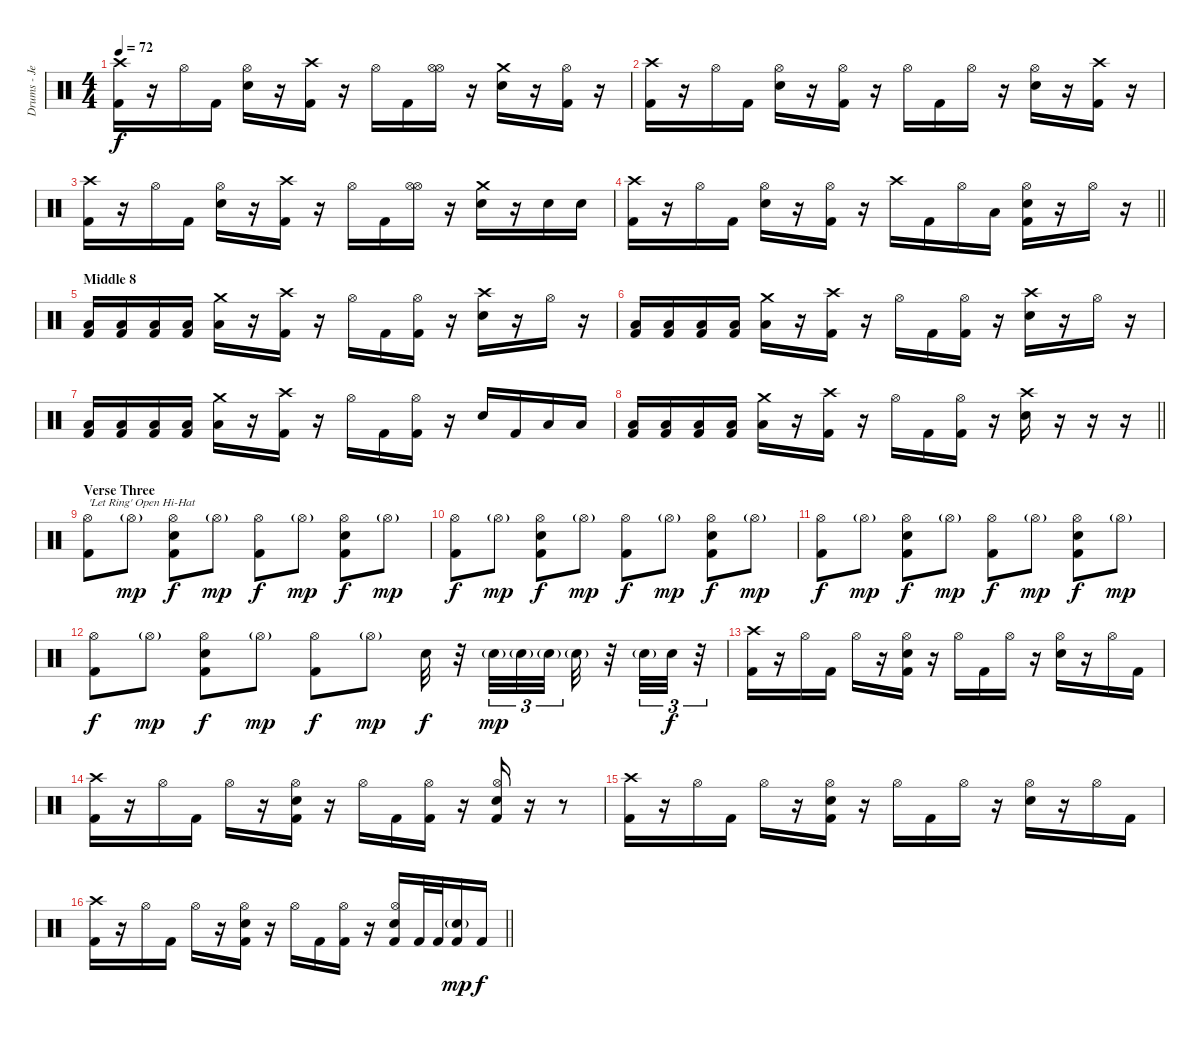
\track ("Drums - Jerry Gaskill" "Drums - Je") {instrument percussion}
\staff {score}
\articulation defaults
\ts (4 4)
\tempo 72
\clef neutral
\ks c
("Kick (hit) 2" "Crash high (hit)").16{dy f} r.16 "Hi-Hat (open)".16 "Kick (hit) 2".16 ("Snare (hit) 2" "Hi-Hat (open)").16 r.16 ("Kick (hit) 2" "Crash high (hit)").16 r.16 "Hi-Hat (open)".16 "Kick (hit) 2".16 ("Hi-Hat (open)" "Hi-Hat (open)").16 r.16 ("Snare (hit) 2" "Crash medium (hit)").16 r.16 ("Kick (hit) 2" "Hi-Hat (open)").16 r.16 |
("Kick (hit) 2" "Crash high (hit)").16 r.16 "Hi-Hat (open)".16 "Kick (hit) 2".16 ("Snare (hit) 2" "Hi-Hat (open)").16 r.16 ("Kick (hit) 2" "Hi-Hat (open)").16 r.16 "Hi-Hat (open)".16 "Kick (hit) 2".16 "Hi-Hat (open)".16 r.16 ("Snare (hit) 2" "Hi-Hat (open)").16 r.16 ("Kick (hit) 2" "Crash high (hit)").16 r.16 |
("Kick (hit) 2" "Crash high (hit)").16 r.16 "Hi-Hat (open)".16 "Kick (hit) 2".16 ("Snare (hit) 2" "Hi-Hat (open)").16 r.16 ("Kick (hit) 2" "Crash high (hit)").16 r.16 "Hi-Hat (open)".16 "Kick (hit) 2".16 ("Hi-Hat (open)" "Hi-Hat (open)").16 r.16 ("Snare (hit) 2" "Crash medium (hit)").16 r.16 "Snare (hit) 2".16 "Snare (hit) 2".16 |
\barLineRight lightlight
("Kick (hit) 2" "Crash high (hit)").16 r.16 "Hi-Hat (open)".16 "Kick (hit) 2".16 ("Snare (hit) 2" "Hi-Hat (open)").16 r.16 ("Kick (hit) 2" "Hi-Hat (open)").16 r.16 "Crash high (hit)".16 "Kick (hit) 2".16 "Hi-Hat (open)".16 "Low Tom (hit)".16 ("Kick (hit) 2" "Snare (hit) 2" "Hi-Hat (open)").16 r.16 "Hi-Hat (open)".16 r.16 |
\section ("" "Middle 8")
("Kick (hit) 2" "Low Tom (hit)").16 ("Kick (hit) 2" "Low Tom (hit)").16 ("Kick (hit) 2" "Low Tom (hit)").16 ("Kick (hit) 2" "Low Tom (hit)").16 ("Low Tom (hit)" "Crash medium (hit)").16 r.16 ("Kick (hit) 2" "Crash high (hit)").16 r.16 "Hi-Hat (open)".16 "Kick (hit) 2".16 ("Kick (hit) 2" "Hi-Hat (open)").16 r.16 ("Snare (hit) 2" "Crash high (hit)").16 r.16 "Hi-Hat (open)".16 r.16 |
("Kick (hit) 2" "Low Tom (hit)").16 ("Kick (hit) 2" "Low Tom (hit)").16 ("Kick (hit) 2" "Low Tom (hit)").16 ("Kick (hit) 2" "Low Tom (hit)").16 ("Low Tom (hit)" "Crash medium (hit)").16 r.16 ("Kick (hit) 2" "Crash high (hit)").16 r.16 "Hi-Hat (open)".16 "Kick (hit) 2".16 ("Kick (hit) 2" "Hi-Hat (open)").16 r.16 ("Snare (hit) 2" "Crash high (hit)").16 r.16 "Hi-Hat (open)".16 r.16 |
("Kick (hit) 2" "Low Tom (hit)").16 ("Kick (hit) 2" "Low Tom (hit)").16 ("Kick (hit) 2" "Low Tom (hit)").16 ("Kick (hit) 2" "Low Tom (hit)").16 ("Low Tom (hit)" "Crash medium (hit)").16 r.16 ("Kick (hit) 2" "Crash high (hit)").16 r.16 "Hi-Hat (open)".16 "Kick (hit) 2".16 ("Kick (hit) 2" "Hi-Hat (open)").16 r.16 "Snare (hit) 2".16 "Kick (hit) 2".16 "Low Tom (hit)".16 "Low Tom (hit)".16 |
\barLineRight lightlight
("Kick (hit) 2" "Low Tom (hit)").16 ("Kick (hit) 2" "Low Tom (hit)").16 ("Kick (hit) 2" "Low Tom (hit)").16 ("Kick (hit) 2" "Low Tom (hit)").16 ("Low Tom (hit)" "Crash medium (hit)").16 r.16 ("Kick (hit) 2" "Crash high (hit)").16 r.16 "Hi-Hat (open)".16 "Kick (hit) 2".16 ("Kick (hit) 2" "Hi-Hat (open)").16 r.16 ("Snare (hit) 2" "Crash high (hit)").16 r.16 r.16 r.16 |
\section ("" "Verse Three")
("Kick (hit) 2" "Hi-Hat (open)").8{txt "'Let Ring' Open Hi-Hat"} "Hi-Hat (open)"{g}.8{dy mp} ("Kick (hit) 2" "Snare (hit) 2" "Hi-Hat (open)").8{dy f} "Hi-Hat (open)"{g}.8{dy mp} ("Kick (hit) 2" "Hi-Hat (open)").8{dy f} "Hi-Hat (open)"{g}.8{dy mp} ("Kick (hit) 2" "Snare (hit) 2" "Hi-Hat (open)").8{dy f} "Hi-Hat (open)"{g}.8{dy mp} |
("Kick (hit) 2" "Hi-Hat (open)").8{dy f} "Hi-Hat (open)"{g}.8{dy mp} ("Kick (hit) 2" "Snare (hit) 2" "Hi-Hat (open)").8{dy f} "Hi-Hat (open)"{g}.8{dy mp} ("Kick (hit) 2" "Hi-Hat (open)").8{dy f} "Hi-Hat (open)"{g}.8{dy mp} ("Kick (hit) 2" "Snare (hit) 2" "Hi-Hat (open)").8{dy f} "Hi-Hat (open)"{g}.8{dy mp} |
("Kick (hit) 2" "Hi-Hat (open)").8{dy f} "Hi-Hat (open)"{g}.8{dy mp} ("Kick (hit) 2" "Snare (hit) 2" "Hi-Hat (open)").8{dy f} "Hi-Hat (open)"{g}.8{dy mp} ("Kick (hit) 2" "Hi-Hat (open)").8{dy f} "Hi-Hat (open)"{g}.8{dy mp} ("Kick (hit) 2" "Snare (hit) 2" "Hi-Hat (open)").8{dy f} "Hi-Hat (open)"{g}.8{dy mp} |
("Kick (hit) 2" "Hi-Hat (open)").8{dy f} "Hi-Hat (open)"{g}.8{dy mp} ("Kick (hit) 2" "Snare (hit) 2" "Hi-Hat (open)").8{dy f} "Hi-Hat (open)"{g}.8{dy mp} ("Kick (hit) 2" "Hi-Hat (open)").8{dy f} "Hi-Hat (open)"{g}.8{dy mp} "Snare (hit) 2".32{dy f} r.32 "Snare (hit) 2"{g}.32{tu (3 2) dy mp} "Snare (hit) 2"{g}.32{tu (3 2)} "Snare (hit) 2"{g}.32{tu (3 2) beam splitsecondary} "Snare (hit) 2"{g}.32 r.32 "Snare (hit) 2"{g}.32{tu (3 2)} "Snare (hit) 2".32{tu (3 2) dy f} r.32{tu (3 2)} |
("Kick (hit) 2" "Crash high (hit)").16 r.16 "Hi-Hat (open)".16 "Kick (hit) 2".16 "Hi-Hat (open)".16 r.16 ("Kick (hit) 2" "Snare (hit) 2" "Hi-Hat (open)").16 r.16 "Hi-Hat (open)".16 "Kick (hit) 2".16 "Hi-Hat (open)".16 r.16 ("Snare (hit) 2" "Hi-Hat (open)").16 r.16 "Hi-Hat (open)".16 "Kick (hit) 2".16 |
("Kick (hit) 2" "Crash high (hit)").16 r.16 "Hi-Hat (open)".16 "Kick (hit) 2".16 "Hi-Hat (open)".16 r.16 ("Kick (hit) 2" "Snare (hit) 2" "Hi-Hat (open)").16 r.16 "Hi-Hat (open)".16 "Kick (hit) 2".16 ("Kick (hit) 2" "Hi-Hat (open)").16 r.16 ("Kick (hit) 2" "Snare (hit) 2" "Hi-Hat (open)").16 r.16{volume 0} r.8 |
("Kick (hit) 2" "Crash high (hit)").16{volume 14} r.16 "Hi-Hat (open)".16 "Kick (hit) 2".16 "Hi-Hat (open)".16 r.16 ("Kick (hit) 2" "Snare (hit) 2" "Hi-Hat (open)").16 r.16 "Hi-Hat (open)".16 "Kick (hit) 2".16 "Hi-Hat (open)".16 r.16 ("Snare (hit) 2" "Hi-Hat (open)").16 r.16 "Hi-Hat (open)".16 "Kick (hit) 2".16 |
\barLineRight lightlight
("Kick (hit) 2" "Crash high (hit)").16 r.16 "Hi-Hat (open)".16 "Kick (hit) 2".16 "Hi-Hat (open)".16 r.16 ("Kick (hit) 2" "Snare (hit) 2" "Hi-Hat (open)").16 r.16 "Hi-Hat (open)".16 "Kick (hit) 2".16 ("Kick (hit) 2" "Hi-Hat (open)").16 r.16 ("Kick (hit) 2" "Snare (hit) 2" "Hi-Hat (open)").16 "Kick (hit) 2".32 "Kick (hit) 2".32 ("Kick (hit) 2" "Snare (hit) 2"{g}).16{dy mp} "Kick (hit) 2".16{dy f}
